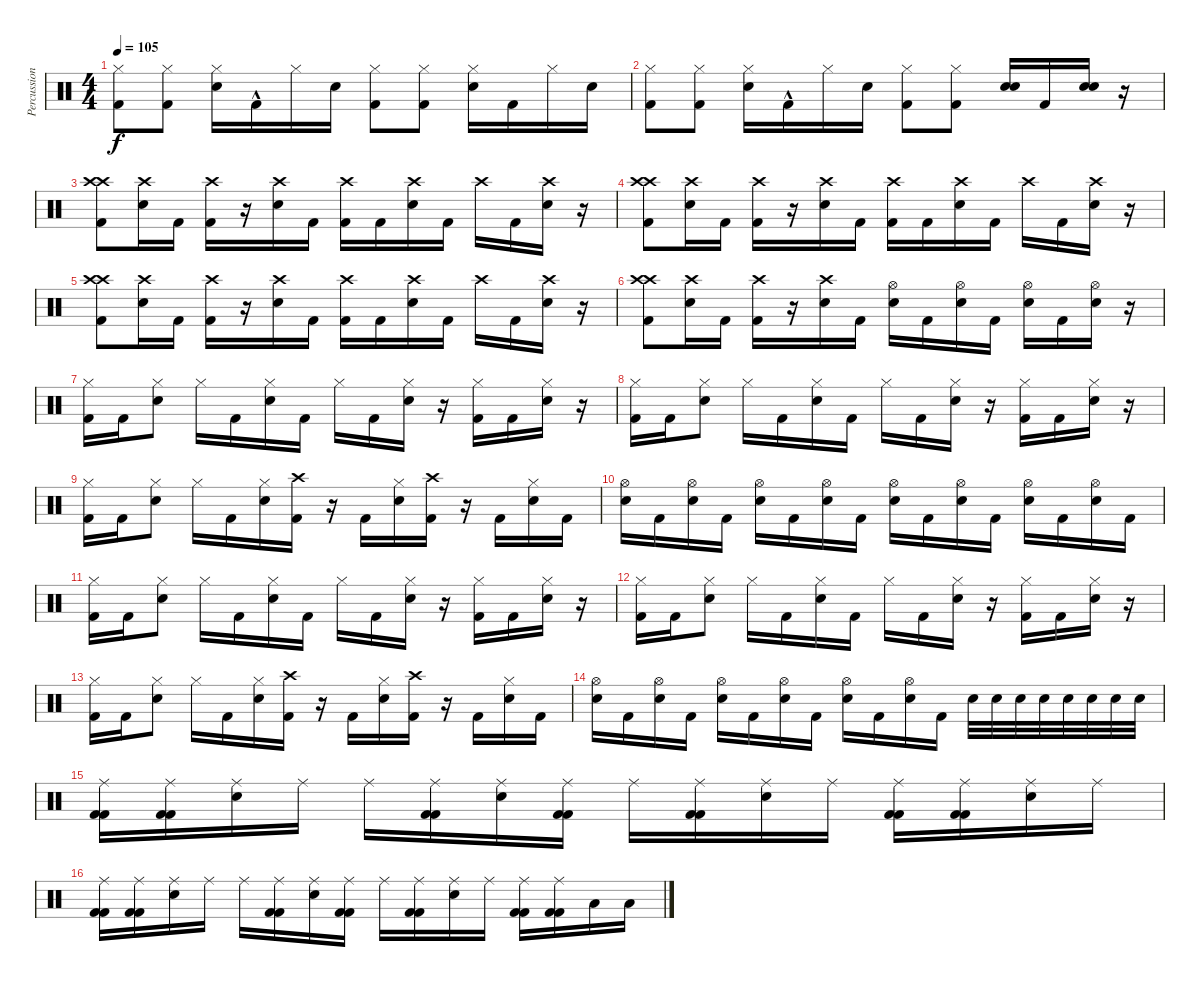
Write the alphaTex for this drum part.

\track ("Percussion" "Percussion") {instrument percussion}
\staff {score}
\articulation defaults
\ts (4 4)
\tempo 105
\clef neutral
\ks c
("Hi-Hat (closed)" "Kick (hit) 2").8{dy f} ("Hi-Hat (closed)" "Kick (hit) 2").8 ("Hi-Hat (closed)" "Snare (hit) 2").16 "Kick (hit) 2"{hac}.16 "Hi-Hat (closed)".16 "Snare (hit) 2".16 ("Hi-Hat (closed)" "Kick (hit) 2").8 ("Hi-Hat (closed)" "Kick (hit) 2").8 ("Hi-Hat (closed)" "Snare (hit) 2").16 "Kick (hit) 2".16 "Hi-Hat (closed)".16 "Snare (hit) 2".16 |
("Hi-Hat (closed)" "Kick (hit) 2").8 ("Hi-Hat (closed)" "Kick (hit) 2").8 ("Hi-Hat (closed)" "Snare (hit) 2").16 "Kick (hit) 2"{hac}.16 "Hi-Hat (closed)".16 "Snare (hit) 2".16 ("Hi-Hat (closed)" "Kick (hit) 2").8 ("Hi-Hat (closed)" "Kick (hit) 2").8 ("Snare (hit) 2" "Snare (hit) 2").16 "Kick (hit) 2".16 ("Snare (hit) 2" "Snare (hit) 2").16 r.16 |
("Crash high (hit)" "Crash high (hit)" "Kick (hit) 2").8 ("Crash high (hit)" "Snare (hit) 2").16 "Kick (hit) 2".16 ("Crash high (hit)" "Kick (hit) 2").16 r.16 ("Crash high (hit)" "Snare (hit) 2").16 "Kick (hit) 2".16 ("Crash high (hit)" "Kick (hit) 2").16 "Kick (hit) 2".16 ("Crash high (hit)" "Snare (hit) 2").16 "Kick (hit) 2".16 "Crash high (hit)".16 "Kick (hit) 2".16 ("Crash high (hit)" "Snare (hit) 2").16 r.16 |
("Crash high (hit)" "Crash high (hit)" "Kick (hit) 2").8 ("Crash high (hit)" "Snare (hit) 2").16 "Kick (hit) 2".16 ("Crash high (hit)" "Kick (hit) 2").16 r.16 ("Crash high (hit)" "Snare (hit) 2").16 "Kick (hit) 2".16 ("Crash high (hit)" "Kick (hit) 2").16 "Kick (hit) 2".16 ("Crash high (hit)" "Snare (hit) 2").16 "Kick (hit) 2".16 "Crash high (hit)".16 "Kick (hit) 2".16 ("Crash high (hit)" "Snare (hit) 2").16 r.16 |
("Crash high (hit)" "Crash high (hit)" "Kick (hit) 2").8 ("Crash high (hit)" "Snare (hit) 2").16 "Kick (hit) 2".16 ("Crash high (hit)" "Kick (hit) 2").16 r.16 ("Crash high (hit)" "Snare (hit) 2").16 "Kick (hit) 2".16 ("Crash high (hit)" "Kick (hit) 2").16 "Kick (hit) 2".16 ("Crash high (hit)" "Snare (hit) 2").16 "Kick (hit) 2".16 "Crash high (hit)".16 "Kick (hit) 2".16 ("Crash high (hit)" "Snare (hit) 2").16 r.16 |
("Crash high (hit)" "Crash high (hit)" "Kick (hit) 2").8 ("Crash high (hit)" "Snare (hit) 2").16 "Kick (hit) 2".16 ("Crash high (hit)" "Kick (hit) 2").16 r.16 ("Crash high (hit)" "Snare (hit) 2").16 "Kick (hit) 2".16 ("Hi-Hat (open)" "Snare (hit) 2").16 "Kick (hit) 2".16 ("Hi-Hat (open)" "Snare (hit) 2").16 "Kick (hit) 2".16 ("Hi-Hat (open)" "Snare (hit) 2").16 "Kick (hit) 2".16 ("Hi-Hat (open)" "Snare (hit) 2").16 r.16 |
("Hi-Hat (closed)" "Kick (hit) 2").16 "Kick (hit) 2".16 ("Hi-Hat (closed)" "Snare (hit) 2").8 "Hi-Hat (closed)".16 "Kick (hit) 2".16 ("Hi-Hat (closed)" "Snare (hit) 2").16 "Kick (hit) 2".16 "Hi-Hat (closed)".16 "Kick (hit) 2".16 ("Hi-Hat (closed)" "Snare (hit) 2").16 r.16 ("Hi-Hat (closed)" "Kick (hit) 2").16 "Kick (hit) 2".16 ("Hi-Hat (closed)" "Snare (hit) 2").16 r.16 |
("Hi-Hat (closed)" "Kick (hit) 2").16 "Kick (hit) 2".16 ("Hi-Hat (closed)" "Snare (hit) 2").8 "Hi-Hat (closed)".16 "Kick (hit) 2".16 ("Hi-Hat (closed)" "Snare (hit) 2").16 "Kick (hit) 2".16 "Hi-Hat (closed)".16 "Kick (hit) 2".16 ("Hi-Hat (closed)" "Snare (hit) 2").16 r.16 ("Hi-Hat (closed)" "Kick (hit) 2").16 "Kick (hit) 2".16 ("Hi-Hat (closed)" "Snare (hit) 2").16 r.16 |
("Hi-Hat (closed)" "Kick (hit) 2").16 "Kick (hit) 2".16 ("Hi-Hat (closed)" "Snare (hit) 2").8 "Hi-Hat (closed)".16 "Kick (hit) 2".16 ("Hi-Hat (closed)" "Snare (hit) 2").16 ("Crash high (hit)" "Kick (hit) 2").16 r.16 "Kick (hit) 2".16 ("Hi-Hat (closed)" "Snare (hit) 2").16 ("Crash high (hit)" "Kick (hit) 2").16 r.16 "Kick (hit) 2".16 ("Hi-Hat (closed)" "Snare (hit) 2").16 "Kick (hit) 2".16 |
("Hi-Hat (open)" "Snare (hit) 2").16 "Kick (hit) 2".16 ("Hi-Hat (open)" "Snare (hit) 2").16 "Kick (hit) 2".16 ("Hi-Hat (open)" "Snare (hit) 2").16 "Kick (hit) 2".16 ("Hi-Hat (open)" "Snare (hit) 2").16 "Kick (hit) 2".16 ("Hi-Hat (open)" "Snare (hit) 2").16 "Kick (hit) 2".16 ("Hi-Hat (open)" "Snare (hit) 2").16 "Kick (hit) 2".16 ("Hi-Hat (open)" "Snare (hit) 2").16 "Kick (hit) 2".16 ("Hi-Hat (open)" "Snare (hit) 2").16 "Kick (hit) 2".16 |
("Hi-Hat (closed)" "Kick (hit) 2").16 "Kick (hit) 2".16 ("Hi-Hat (closed)" "Snare (hit) 2").8 "Hi-Hat (closed)".16 "Kick (hit) 2".16 ("Hi-Hat (closed)" "Snare (hit) 2").16 "Kick (hit) 2".16 "Hi-Hat (closed)".16 "Kick (hit) 2".16 ("Hi-Hat (closed)" "Snare (hit) 2").16 r.16 ("Hi-Hat (closed)" "Kick (hit) 2").16 "Kick (hit) 2".16 ("Hi-Hat (closed)" "Snare (hit) 2").16 r.16 |
("Hi-Hat (closed)" "Kick (hit) 2").16 "Kick (hit) 2".16 ("Hi-Hat (closed)" "Snare (hit) 2").8 "Hi-Hat (closed)".16 "Kick (hit) 2".16 ("Hi-Hat (closed)" "Snare (hit) 2").16 "Kick (hit) 2".16 "Hi-Hat (closed)".16 "Kick (hit) 2".16 ("Hi-Hat (closed)" "Snare (hit) 2").16 r.16 ("Hi-Hat (closed)" "Kick (hit) 2").16 "Kick (hit) 2".16 ("Hi-Hat (closed)" "Snare (hit) 2").16 r.16 |
("Hi-Hat (closed)" "Kick (hit) 2").16 "Kick (hit) 2".16 ("Hi-Hat (closed)" "Snare (hit) 2").8 "Hi-Hat (closed)".16 "Kick (hit) 2".16 ("Hi-Hat (closed)" "Snare (hit) 2").16 ("Crash high (hit)" "Kick (hit) 2").16 r.16 "Kick (hit) 2".16 ("Hi-Hat (closed)" "Snare (hit) 2").16 ("Crash high (hit)" "Kick (hit) 2").16 r.16 "Kick (hit) 2".16 ("Hi-Hat (closed)" "Snare (hit) 2").16 "Kick (hit) 2".16 |
("Hi-Hat (open)" "Snare (hit) 2").16 "Kick (hit) 2".16 ("Hi-Hat (open)" "Snare (hit) 2").16 "Kick (hit) 2".16 ("Hi-Hat (open)" "Snare (hit) 2").16 "Kick (hit) 2".16 ("Hi-Hat (open)" "Snare (hit) 2").16 "Kick (hit) 2".16 ("Hi-Hat (open)" "Snare (hit) 2").16 "Kick (hit) 2".16 ("Hi-Hat (open)" "Snare (hit) 2").16 "Kick (hit) 2".16 "Snare (hit) 2".32 "Snare (hit) 2".32 "Snare (hit) 2".32 "Snare (hit) 2".32 "Snare (hit) 2".32 "Snare (hit) 2".32 "Snare (hit) 2".32 "Snare (hit) 2".32 |
("Ride (middle)" "Kick (hit) 2" "Kick (hit) 2").16 ("Ride (middle)" "Kick (hit) 2" "Kick (hit) 2").16 ("Ride (middle)" "Snare (hit) 2").16 "Ride (middle)".16 "Ride (middle)".16 ("Ride (middle)" "Kick (hit) 2" "Kick (hit) 2").16 ("Ride (middle)" "Snare (hit) 2").16 ("Ride (middle)" "Kick (hit) 2" "Kick (hit) 2").16 "Ride (middle)".16 ("Ride (middle)" "Kick (hit) 2" "Kick (hit) 2").16 ("Ride (middle)" "Snare (hit) 2").16 "Ride (middle)".16 ("Ride (middle)" "Kick (hit) 2" "Kick (hit) 2").16 ("Ride (middle)" "Kick (hit) 2" "Kick (hit) 2").16 ("Ride (middle)" "Snare (hit) 2").16 "Ride (middle)".16 |
("Ride (middle)" "Kick (hit) 2" "Kick (hit) 2").16 ("Ride (middle)" "Kick (hit) 2" "Kick (hit) 2").16 ("Ride (middle)" "Snare (hit) 2").16 "Ride (middle)".16 "Ride (middle)".16 ("Ride (middle)" "Kick (hit) 2" "Kick (hit) 2").16 ("Ride (middle)" "Snare (hit) 2").16 ("Ride (middle)" "Kick (hit) 2" "Kick (hit) 2").16 "Ride (middle)".16 ("Ride (middle)" "Kick (hit) 2" "Kick (hit) 2").16 ("Ride (middle)" "Snare (hit) 2").16 "Ride (middle)".16 ("Ride (middle)" "Kick (hit) 2" "Kick (hit) 2").16 ("Ride (middle)" "Kick (hit) 2" "Kick (hit) 2").16 "Low Tom (hit)".16 "Low Tom (hit)".16
